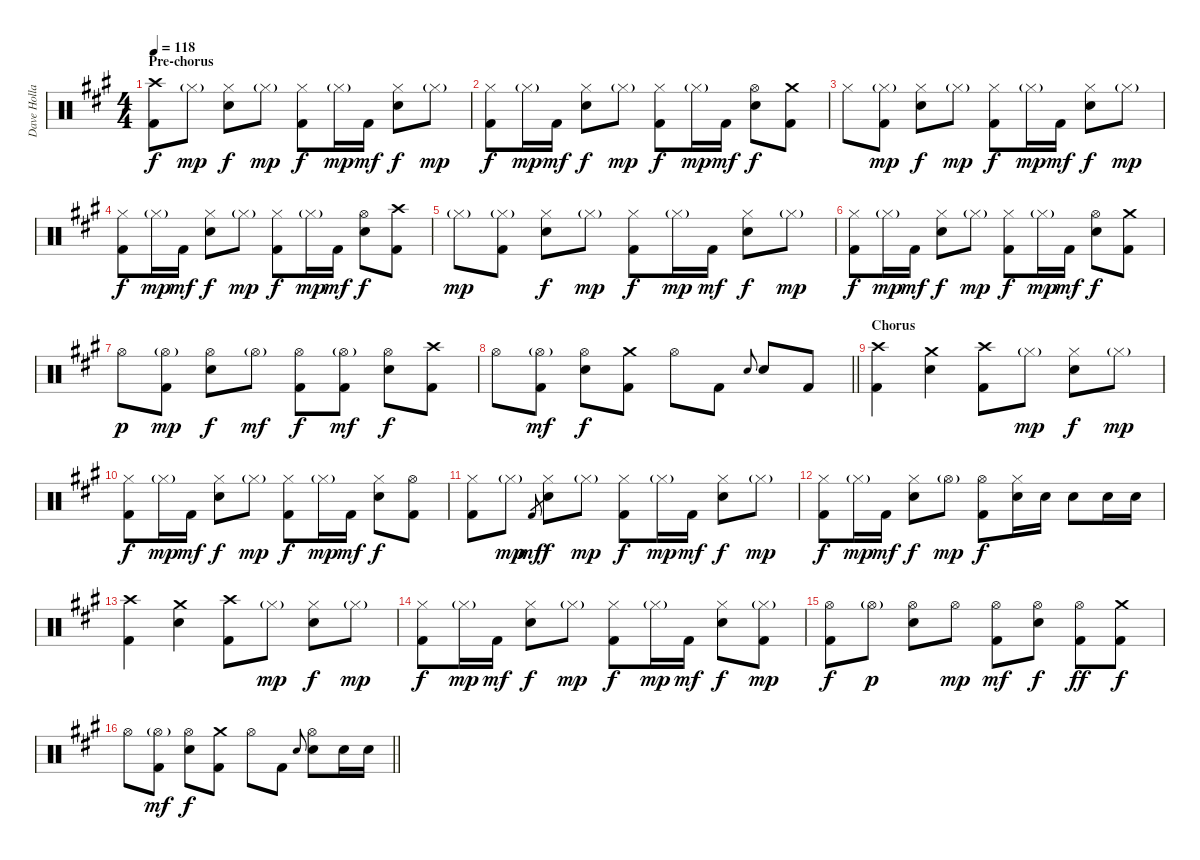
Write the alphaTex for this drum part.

\track ("Dave Holland" "Dave Holla") {instrument percussion}
\staff {score}
\articulation defaults
\ts (4 4)
\section ("" "Pre-chorus")
\tempo 118
\clef neutral
\ks f#minor
("Crash high (hit)" "Kick (hit) 2").8{dy f} "Hi-Hat (closed)"{g}.8{dy mp} ("Hi-Hat (closed)" "Snare (hit) 2").8{dy f} "Hi-Hat (closed)"{g}.8{dy mp} ("Hi-Hat (closed)" "Kick (hit) 2").8{dy f} "Hi-Hat (closed)"{g}.16{dy mp} "Kick (hit) 2".16{dy mf} ("Hi-Hat (closed)" "Snare (hit) 2").8{dy f} "Hi-Hat (closed)"{g}.8{dy mp} |
("Hi-Hat (closed)" "Kick (hit) 2").8{dy f} "Hi-Hat (closed)"{g}.16{dy mp} "Kick (hit) 2".16{dy mf} ("Hi-Hat (closed)" "Snare (hit) 2").8{dy f} "Hi-Hat (closed)"{g}.8{dy mp} ("Hi-Hat (closed)" "Kick (hit) 2").8{dy f} "Hi-Hat (closed)"{g}.16{dy mp} "Kick (hit) 2".16{dy mf} ("Hi-Hat (open)" "Snare (hit) 2").8{dy f} ("Crash medium (hit)" "Kick (hit) 2").8 |
"Hi-Hat (closed)".8 ("Hi-Hat (closed)"{g} "Kick (hit) 2").8{dy mp} ("Hi-Hat (closed)" "Snare (hit) 2").8{dy f} "Hi-Hat (closed)"{g}.8{dy mp} ("Hi-Hat (closed)" "Kick (hit) 2").8{dy f} "Hi-Hat (closed)"{g}.16{dy mp} "Kick (hit) 2".16{dy mf} ("Hi-Hat (closed)" "Snare (hit) 2").8{dy f} "Hi-Hat (closed)"{g}.8{dy mp} |
("Hi-Hat (closed)" "Kick (hit) 2").8{dy f} "Hi-Hat (closed)"{g}.16{dy mp} "Kick (hit) 2".16{dy mf} ("Hi-Hat (closed)" "Snare (hit) 2").8{dy f} "Hi-Hat (closed)"{g}.8{dy mp} ("Hi-Hat (closed)" "Kick (hit) 2").8{dy f} "Hi-Hat (closed)"{g}.16{dy mp} "Kick (hit) 2".16{dy mf} ("Hi-Hat (open)" "Snare (hit) 2").8{dy f} ("Crash high (hit)" "Kick (hit) 2").8 |
"Hi-Hat (closed)"{g}.8{dy mp} ("Hi-Hat (closed)"{g} "Kick (hit) 2").8 ("Hi-Hat (closed)" "Snare (hit) 2").8{dy f} "Hi-Hat (closed)"{g}.8{dy mp} ("Hi-Hat (closed)" "Kick (hit) 2").8{dy f} "Hi-Hat (closed)"{g}.16{dy mp} "Kick (hit) 2".16{dy mf} ("Hi-Hat (closed)" "Snare (hit) 2").8{dy f} "Hi-Hat (closed)"{g}.8{dy mp} |
("Hi-Hat (closed)" "Kick (hit) 2").8{dy f} "Hi-Hat (closed)"{g}.16{dy mp} "Kick (hit) 2".16{dy mf} ("Hi-Hat (closed)" "Snare (hit) 2").8{dy f} "Hi-Hat (closed)"{g}.8{dy mp} ("Hi-Hat (closed)" "Kick (hit) 2").8{dy f} "Hi-Hat (closed)"{g}.16{dy mp} "Kick (hit) 2".16{dy mf} ("Hi-Hat (open)" "Snare (hit) 2").8{dy f} ("Crash medium (hit)" "Kick (hit) 2").8 |
"Hi-Hat (open)".8{dy p} ("Hi-Hat (open)"{g} "Kick (hit) 2").8{dy mp} ("Hi-Hat (open)" "Snare (hit) 2").8{dy f} "Hi-Hat (open)"{g}.8{dy mf} ("Hi-Hat (open)" "Kick (hit) 2").8{dy f} ("Hi-Hat (open)"{g} "Kick (hit) 2").8{dy mf} ("Hi-Hat (open)" "Snare (hit) 2").8{dy f} ("Crash high (hit)" "Kick (hit) 2").8 |
\barLineRight lightlight "Hi-Hat (open)".8
("Hi-Hat (open)"{g} "Kick (hit) 2").8{dy mf} ("Hi-Hat (open)" "Snare (hit) 2").8{dy f} ("Crash medium (hit)" "Kick (hit) 2").8 "Hi-Hat (open)".8 "Kick (hit) 2".8 "Snare (hit) 2".8{gr onbeat} "Snare (hit) 2".8 "Kick (hit) 2".8 |
\section ("" "Chorus")
("Crash high (hit)" "Kick (hit) 2").4 ("Crash medium (hit)" "Snare (hit) 2").4 ("Crash high (hit)" "Kick (hit) 2").8 "Hi-Hat (closed)"{g}.8{dy mp} ("Hi-Hat (closed)" "Snare (hit) 2").8{dy f} "Hi-Hat (closed)"{g}.8{dy mp} |
("Hi-Hat (closed)" "Kick (hit) 2").8{dy f} "Hi-Hat (closed)"{g}.16{dy mp} "Kick (hit) 2".16{dy mf} ("Hi-Hat (closed)" "Snare (hit) 2").8{dy f} "Hi-Hat (closed)"{g}.8{dy mp} ("Hi-Hat (closed)" "Kick (hit) 2").8{dy f} "Hi-Hat (closed)"{g}.16{dy mp} "Kick (hit) 2".16{dy mf} ("Hi-Hat (closed)" "Snare (hit) 2").8{dy f} ("Hi-Hat (open)" "Kick (hit) 2").8 |
("Hi-Hat (closed)" "Kick (hit) 2").8 "Hi-Hat (closed)"{g}.8{dy mp} "Kick (hit) 2".8{gr dy mf} ("Hi-Hat (closed)" "Snare (hit) 2").8{dy f} "Hi-Hat (closed)"{g}.8{dy mp} ("Hi-Hat (closed)" "Kick (hit) 2").8{dy f} "Hi-Hat (closed)"{g}.16{dy mp} "Kick (hit) 2".16{dy mf} ("Hi-Hat (closed)" "Snare (hit) 2").8{dy f} "Hi-Hat (closed)"{g}.8{dy mp} |
("Hi-Hat (closed)" "Kick (hit) 2").8{dy f} "Hi-Hat (closed)"{g}.16{dy mp} "Kick (hit) 2".16{dy mf} ("Hi-Hat (closed)" "Snare (hit) 2").8{dy f} "Hi-Hat (open)"{g}.8{dy mp} ("Hi-Hat (open)" "Kick (hit) 2").8{dy f} ("Hi-Hat (closed)" "Snare (hit) 2").16 "Snare (hit) 2".16 "Snare (hit) 2".8 "Snare (hit) 2".16 "Snare (hit) 2".16 |
("Crash high (hit)" "Kick (hit) 2").4 ("Crash medium (hit)" "Snare (hit) 2").4 ("Crash high (hit)" "Kick (hit) 2").8 "Hi-Hat (closed)"{g}.8{dy mp} ("Hi-Hat (closed)" "Snare (hit) 2").8{dy f} "Hi-Hat (closed)"{g}.8{dy mp} |
("Hi-Hat (closed)" "Kick (hit) 2").8{dy f} "Hi-Hat (closed)"{g}.16{dy mp} "Kick (hit) 2".16{dy mf} ("Hi-Hat (closed)" "Snare (hit) 2").8{dy f} "Hi-Hat (closed)"{g}.8{dy mp} ("Hi-Hat (closed)" "Kick (hit) 2").8{dy f} "Hi-Hat (closed)"{g}.16{dy mp} "Kick (hit) 2".16{dy mf} ("Hi-Hat (closed)" "Snare (hit) 2").8{dy f} ("Hi-Hat (closed)"{g} "Kick (hit) 2").8{dy mp} |
("Hi-Hat (open)" "Kick (hit) 2").8{dy f} "Hi-Hat (open)"{g}.8{dy p} ("Hi-Hat (open)" "Snare (hit) 2").8 "Hi-Hat (open)".8{dy mp} ("Hi-Hat (open)" "Kick (hit) 2").8{dy mf} ("Hi-Hat (open)" "Snare (hit) 2").8{dy f} ("Hi-Hat (open)" "Kick (hit) 2").8{dy ff} ("Crash medium (hit)" "Kick (hit) 2").8{dy f} |
\barLineRight lightlight "Hi-Hat (open)".8
("Hi-Hat (open)"{g} "Kick (hit) 2").8{dy mf} ("Hi-Hat (open)" "Snare (hit) 2").8{dy f} ("Crash medium (hit)" "Kick (hit) 2").8 "Hi-Hat (open)".8 "Kick (hit) 2".8 "Snare (hit) 2".8{gr onbeat} ("Hi-Hat (open)" "Snare (hit) 2").8 "Snare (hit) 2".16 "Snare (hit) 2".16
